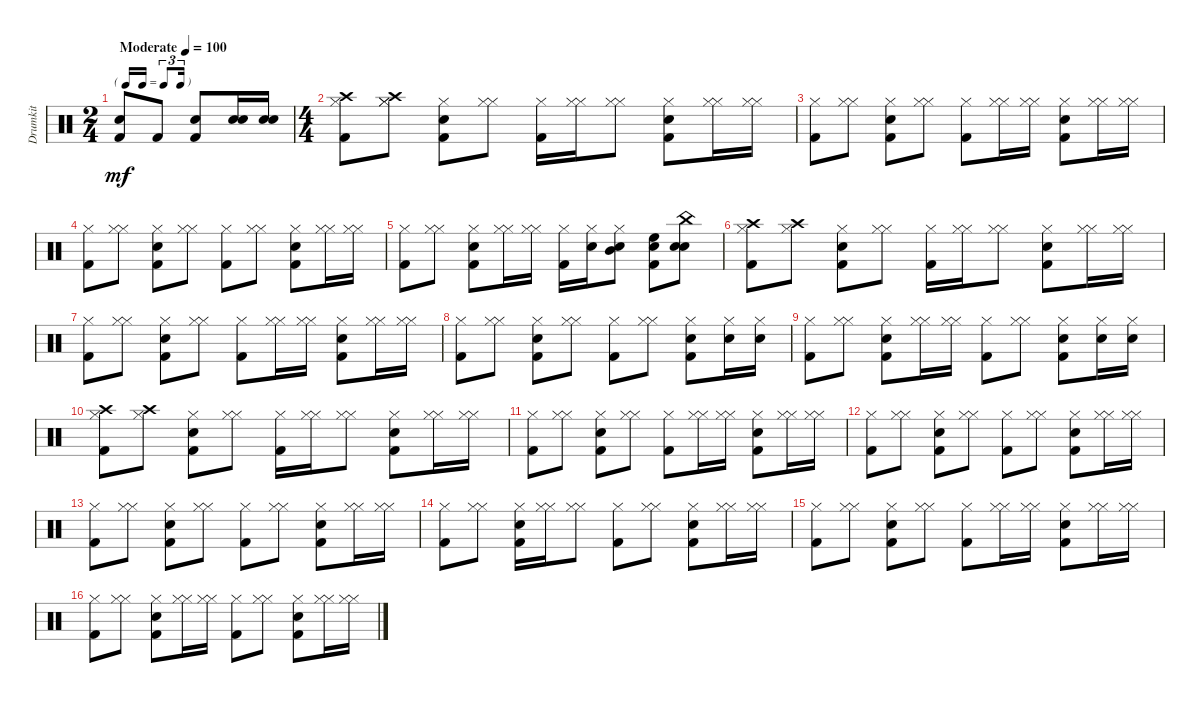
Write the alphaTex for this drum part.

\track ("Drumkit" "Drumkit") {instrument percussion}
\staff {score}
\articulation defaults
\ts (2 4)
\tf triplet16th
\tempo (100 "Moderate")
\clef neutral
\ks c
("Snare (hit) 2" "Kick (hit) 2").8{dy mf} "Kick (hit) 2".8 ("Snare (hit) 2" "Kick (hit) 2").8 ("Snare (hit) 2" "Snare (hit) 2").16 ("Snare (hit) 2" "Snare (hit) 2").16 |
\ts (4 4)
("Hi-Hat (closed)" "Crash high (hit)" "Kick (hit) 2").8 ("Hi-Hat (closed)" "Crash high (hit)" "Hi-Hat (closed)").8 ("Snare (hit) 2" "Hi-Hat (closed)" "Kick (hit) 2").8 ("Hi-Hat (closed)" "Hi-Hat (closed)").8 ("Hi-Hat (closed)" "Kick (hit) 2").16 ("Hi-Hat (closed)" "Hi-Hat (closed)").16 ("Hi-Hat (closed)" "Hi-Hat (closed)").8 ("Snare (hit) 2" "Hi-Hat (closed)" "Kick (hit) 2").8 ("Hi-Hat (closed)" "Hi-Hat (closed)").16 ("Hi-Hat (closed)" "Hi-Hat (closed)").16 |
("Hi-Hat (closed)" "Kick (hit) 2").8 ("Hi-Hat (closed)" "Hi-Hat (closed)").8 ("Snare (hit) 2" "Hi-Hat (closed)" "Kick (hit) 2").8 ("Hi-Hat (closed)" "Hi-Hat (closed)").8 ("Hi-Hat (closed)" "Kick (hit) 2").8 ("Hi-Hat (closed)" "Hi-Hat (closed)").16 ("Hi-Hat (closed)" "Hi-Hat (closed)").16 ("Snare (hit) 2" "Hi-Hat (closed)" "Kick (hit) 2").8 ("Hi-Hat (closed)" "Hi-Hat (closed)").16 ("Hi-Hat (closed)" "Hi-Hat (closed)").16 |
("Hi-Hat (closed)" "Kick (hit) 2").8 ("Hi-Hat (closed)" "Hi-Hat (closed)").8 ("Snare (hit) 2" "Hi-Hat (closed)" "Kick (hit) 2").8 ("Hi-Hat (closed)" "Hi-Hat (closed)").8 ("Hi-Hat (closed)" "Kick (hit) 2").8 ("Hi-Hat (closed)" "Hi-Hat (closed)").8 ("Snare (hit) 2" "Hi-Hat (closed)" "Kick (hit) 2").8 ("Hi-Hat (closed)" "Hi-Hat (closed)").16 ("Hi-Hat (closed)" "Hi-Hat (closed)").16 |
("Hi-Hat (closed)" "Kick (hit) 2").8 ("Hi-Hat (closed)" "Hi-Hat (closed)").8 ("Snare (hit) 2" "Hi-Hat (closed)" "Kick (hit) 2").8 ("Hi-Hat (closed)" "Hi-Hat (closed)").16 ("Hi-Hat (closed)" "Hi-Hat (closed)").16 ("Hi-Hat (closed)" "Kick (hit) 2").16 ("Hi-Hat (closed)" "Electric Snare (hit)").16 ("Electric Snare (hit)" "Hi-Hat (closed)" "Mid Tom (hit)").8 ("Electric Snare (hit)" "High Floor Tom (hit)" "Kick (hit) 2").8 ("Electric Snare (hit)" "Electric Snare (hit)" "China (hit)").8 |
("Hi-Hat (closed)" "Crash high (hit)" "Kick (hit) 2").8 ("Crash high (hit)" "Hi-Hat (closed)").8 ("Snare (hit) 2" "Hi-Hat (closed)" "Kick (hit) 2").8 ("Hi-Hat (closed)" "Hi-Hat (closed)").8 ("Hi-Hat (closed)" "Kick (hit) 2").16 ("Hi-Hat (closed)" "Hi-Hat (closed)").16 ("Hi-Hat (closed)" "Hi-Hat (closed)").8 ("Snare (hit) 2" "Hi-Hat (closed)" "Kick (hit) 2").8 ("Hi-Hat (closed)" "Hi-Hat (closed)").16 ("Hi-Hat (closed)" "Hi-Hat (closed)").16 |
("Hi-Hat (closed)" "Kick (hit) 2").8 ("Hi-Hat (closed)" "Hi-Hat (closed)").8 ("Snare (hit) 2" "Hi-Hat (closed)" "Kick (hit) 2").8 ("Hi-Hat (closed)" "Hi-Hat (closed)").8 ("Hi-Hat (closed)" "Kick (hit) 2").8 ("Hi-Hat (closed)" "Hi-Hat (closed)").16 ("Hi-Hat (closed)" "Hi-Hat (closed)").16 ("Snare (hit) 2" "Hi-Hat (closed)" "Kick (hit) 2").8 ("Hi-Hat (closed)" "Hi-Hat (closed)").16 ("Hi-Hat (closed)" "Hi-Hat (closed)").16 |
("Hi-Hat (closed)" "Kick (hit) 2").8 ("Hi-Hat (closed)" "Hi-Hat (closed)").8 ("Snare (hit) 2" "Hi-Hat (closed)" "Kick (hit) 2").8 ("Hi-Hat (closed)" "Hi-Hat (closed)").8 ("Hi-Hat (closed)" "Kick (hit) 2").8 ("Hi-Hat (closed)" "Hi-Hat (closed)").8 ("Hi-Hat (closed)" "Snare (hit) 2" "Kick (hit) 2").8 ("Snare (hit) 2" "Hi-Hat (closed)").16 ("Snare (hit) 2" "Hi-Hat (closed)").16 |
("Hi-Hat (closed)" "Kick (hit) 2").8 ("Hi-Hat (closed)" "Hi-Hat (closed)").8 ("Snare (hit) 2" "Hi-Hat (closed)" "Kick (hit) 2").8 ("Hi-Hat (closed)" "Hi-Hat (closed)").16 ("Hi-Hat (closed)" "Hi-Hat (closed)").16 ("Hi-Hat (closed)" "Kick (hit) 2").8 ("Hi-Hat (closed)" "Hi-Hat (closed)").8 ("Hi-Hat (closed)" "Snare (hit) 2" "Kick (hit) 2").8 ("Snare (hit) 2" "Hi-Hat (closed)").16 ("Snare (hit) 2" "Hi-Hat (closed)").16 |
("Hi-Hat (closed)" "Crash high (hit)" "Kick (hit) 2").8 ("Crash high (hit)" "Hi-Hat (closed)").8 ("Snare (hit) 2" "Hi-Hat (closed)" "Kick (hit) 2").8 ("Hi-Hat (closed)" "Hi-Hat (closed)").8 ("Hi-Hat (closed)" "Kick (hit) 2").16 ("Hi-Hat (closed)" "Hi-Hat (closed)").16 ("Hi-Hat (closed)" "Hi-Hat (closed)").8 ("Snare (hit) 2" "Hi-Hat (closed)" "Kick (hit) 2").8 ("Hi-Hat (closed)" "Hi-Hat (closed)").16 ("Hi-Hat (closed)" "Hi-Hat (closed)").16 |
("Hi-Hat (closed)" "Kick (hit) 2").8 ("Hi-Hat (closed)" "Hi-Hat (closed)").8 ("Snare (hit) 2" "Hi-Hat (closed)" "Kick (hit) 2").8 ("Hi-Hat (closed)" "Hi-Hat (closed)").8 ("Hi-Hat (closed)" "Kick (hit) 2").8 ("Hi-Hat (closed)" "Hi-Hat (closed)").16 ("Hi-Hat (closed)" "Hi-Hat (closed)").16 ("Snare (hit) 2" "Hi-Hat (closed)" "Kick (hit) 2").8 ("Hi-Hat (closed)" "Hi-Hat (closed)").16 ("Hi-Hat (closed)" "Hi-Hat (closed)").16 |
("Hi-Hat (closed)" "Kick (hit) 2").8 ("Hi-Hat (closed)" "Hi-Hat (closed)").8 ("Snare (hit) 2" "Hi-Hat (closed)" "Kick (hit) 2").8 ("Hi-Hat (closed)" "Hi-Hat (closed)").8 ("Hi-Hat (closed)" "Kick (hit) 2").8 ("Hi-Hat (closed)" "Hi-Hat (closed)").8 ("Snare (hit) 2" "Hi-Hat (closed)" "Kick (hit) 2").8 ("Hi-Hat (closed)" "Hi-Hat (closed)").16 ("Hi-Hat (closed)" "Hi-Hat (closed)").16 |
("Hi-Hat (closed)" "Kick (hit) 2").8 ("Hi-Hat (closed)" "Hi-Hat (closed)").8 ("Snare (hit) 2" "Hi-Hat (closed)" "Kick (hit) 2").8 ("Hi-Hat (closed)" "Hi-Hat (closed)").8 ("Hi-Hat (closed)" "Kick (hit) 2").8 ("Hi-Hat (closed)" "Hi-Hat (closed)").8 ("Snare (hit) 2" "Hi-Hat (closed)" "Kick (hit) 2").8 ("Hi-Hat (closed)" "Hi-Hat (closed)").16 ("Hi-Hat (closed)" "Hi-Hat (closed)").16 |
("Hi-Hat (closed)" "Kick (hit) 2").8 ("Hi-Hat (closed)" "Hi-Hat (closed)").8 ("Snare (hit) 2" "Hi-Hat (closed)" "Kick (hit) 2").16 ("Hi-Hat (closed)" "Hi-Hat (closed)").16 ("Hi-Hat (closed)" "Hi-Hat (closed)").8 ("Hi-Hat (closed)" "Kick (hit) 2").8 ("Hi-Hat (closed)" "Hi-Hat (closed)").8 ("Snare (hit) 2" "Hi-Hat (closed)" "Kick (hit) 2").8 ("Hi-Hat (closed)" "Hi-Hat (closed)").16 ("Hi-Hat (closed)" "Hi-Hat (closed)").16 |
("Hi-Hat (closed)" "Kick (hit) 2").8 ("Hi-Hat (closed)" "Hi-Hat (closed)").8 ("Snare (hit) 2" "Hi-Hat (closed)" "Kick (hit) 2").8 ("Hi-Hat (closed)" "Hi-Hat (closed)").8 ("Hi-Hat (closed)" "Kick (hit) 2").8 ("Hi-Hat (closed)" "Hi-Hat (closed)").16 ("Hi-Hat (closed)" "Hi-Hat (closed)").16 ("Snare (hit) 2" "Hi-Hat (closed)" "Kick (hit) 2").8 ("Hi-Hat (closed)" "Hi-Hat (closed)").16 ("Hi-Hat (closed)" "Hi-Hat (closed)").16 |
("Hi-Hat (closed)" "Kick (hit) 2").8 ("Hi-Hat (closed)" "Hi-Hat (closed)").8 ("Snare (hit) 2" "Hi-Hat (closed)" "Kick (hit) 2").8 ("Hi-Hat (closed)" "Hi-Hat (closed)").16 ("Hi-Hat (closed)" "Hi-Hat (closed)").16 ("Hi-Hat (closed)" "Kick (hit) 2").8 ("Hi-Hat (closed)" "Hi-Hat (closed)").8 ("Snare (hit) 2" "Hi-Hat (closed)" "Kick (hit) 2").8 ("Hi-Hat (closed)" "Hi-Hat (closed)").16 ("Hi-Hat (closed)" "Hi-Hat (closed)").16
